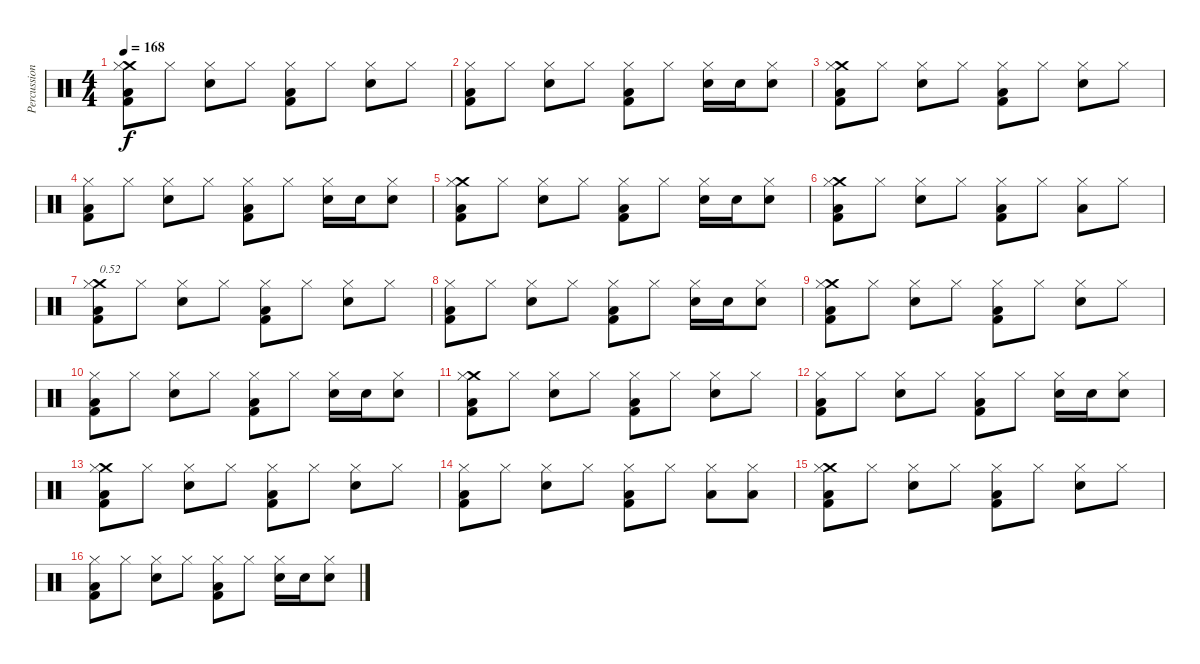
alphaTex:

\track ("Percussions" "Percussion") {instrument percussion}
\staff {score}
\articulation defaults
\ts (4 4)
\tempo 168
\clef neutral
\ks c
("Kick (hit) 2" "Low Floor Tom (hit)" "Crash medium (hit)" "Hi-Hat (closed)").8{dy f} "Hi-Hat (closed)".8 ("Snare (hit) 2" "Hi-Hat (closed)").8 "Hi-Hat (closed)".8 ("Kick (hit) 2" "Low Floor Tom (hit)" "Hi-Hat (closed)").8 "Hi-Hat (closed)".8 ("Snare (hit) 2" "Hi-Hat (closed)").8 "Hi-Hat (closed)".8 |
("Kick (hit) 2" "Low Floor Tom (hit)" "Hi-Hat (closed)").8 "Hi-Hat (closed)".8 ("Snare (hit) 2" "Hi-Hat (closed)").8 "Hi-Hat (closed)".8 ("Kick (hit) 2" "Low Floor Tom (hit)" "Hi-Hat (closed)").8 "Hi-Hat (closed)".8 ("Snare (hit) 2" "Hi-Hat (closed)").16 "Snare (hit) 2".16 ("Snare (hit) 2" "Hi-Hat (closed)").8 |
("Kick (hit) 2" "Low Floor Tom (hit)" "Crash medium (hit)" "Hi-Hat (closed)").8 "Hi-Hat (closed)".8 ("Snare (hit) 2" "Hi-Hat (closed)").8 "Hi-Hat (closed)".8 ("Kick (hit) 2" "Low Floor Tom (hit)" "Hi-Hat (closed)").8 "Hi-Hat (closed)".8 ("Snare (hit) 2" "Hi-Hat (closed)").8 "Hi-Hat (closed)".8 |
("Kick (hit) 2" "Low Floor Tom (hit)" "Hi-Hat (closed)").8 "Hi-Hat (closed)".8 ("Snare (hit) 2" "Hi-Hat (closed)").8 "Hi-Hat (closed)".8 ("Kick (hit) 2" "Low Floor Tom (hit)" "Hi-Hat (closed)").8 "Hi-Hat (closed)".8 ("Snare (hit) 2" "Hi-Hat (closed)").16 "Snare (hit) 2".16 ("Snare (hit) 2" "Hi-Hat (closed)").8 |
("Kick (hit) 2" "Low Floor Tom (hit)" "Crash medium (hit)" "Hi-Hat (closed)").8 "Hi-Hat (closed)".8 ("Snare (hit) 2" "Hi-Hat (closed)").8 "Hi-Hat (closed)".8 ("Kick (hit) 2" "Low Floor Tom (hit)" "Hi-Hat (closed)").8 "Hi-Hat (closed)".8 ("Snare (hit) 2" "Hi-Hat (closed)").16 "Snare (hit) 2".16 ("Snare (hit) 2" "Hi-Hat (closed)").8 |
("Kick (hit) 2" "Low Floor Tom (hit)" "Crash medium (hit)" "Hi-Hat (closed)").8 "Hi-Hat (closed)".8 ("Snare (hit) 2" "Hi-Hat (closed)").8 "Hi-Hat (closed)".8 ("Kick (hit) 2" "Low Floor Tom (hit)" "Hi-Hat (closed)").8 "Hi-Hat (closed)".8 ("Low Tom (hit)" "Hi-Hat (closed)").8 "Hi-Hat (closed)".8 |
("Kick (hit) 2" "Low Floor Tom (hit)" "Crash medium (hit)" "Hi-Hat (closed)").8{txt "0.52"} "Hi-Hat (closed)".8 ("Snare (hit) 2" "Hi-Hat (closed)").8 "Hi-Hat (closed)".8 ("Kick (hit) 2" "Low Floor Tom (hit)" "Hi-Hat (closed)").8 "Hi-Hat (closed)".8 ("Snare (hit) 2" "Hi-Hat (closed)").8 "Hi-Hat (closed)".8 |
("Kick (hit) 2" "Low Floor Tom (hit)" "Hi-Hat (closed)").8 "Hi-Hat (closed)".8 ("Snare (hit) 2" "Hi-Hat (closed)").8 "Hi-Hat (closed)".8 ("Kick (hit) 2" "Low Floor Tom (hit)" "Hi-Hat (closed)").8 "Hi-Hat (closed)".8 ("Snare (hit) 2" "Hi-Hat (closed)").16 "Snare (hit) 2".16 ("Snare (hit) 2" "Hi-Hat (closed)").8 |
("Kick (hit) 2" "Low Floor Tom (hit)" "Crash medium (hit)" "Hi-Hat (closed)").8 "Hi-Hat (closed)".8 ("Snare (hit) 2" "Hi-Hat (closed)").8 "Hi-Hat (closed)".8 ("Kick (hit) 2" "Low Floor Tom (hit)" "Hi-Hat (closed)").8 "Hi-Hat (closed)".8 ("Snare (hit) 2" "Hi-Hat (closed)").8 "Hi-Hat (closed)".8 |
("Kick (hit) 2" "Low Floor Tom (hit)" "Hi-Hat (closed)").8 "Hi-Hat (closed)".8 ("Snare (hit) 2" "Hi-Hat (closed)").8 "Hi-Hat (closed)".8 ("Kick (hit) 2" "Low Floor Tom (hit)" "Hi-Hat (closed)").8 "Hi-Hat (closed)".8 ("Snare (hit) 2" "Hi-Hat (closed)").16 "Snare (hit) 2".16 ("Snare (hit) 2" "Hi-Hat (closed)").8 |
("Kick (hit) 2" "Low Floor Tom (hit)" "Crash medium (hit)" "Hi-Hat (closed)").8 "Hi-Hat (closed)".8 ("Snare (hit) 2" "Hi-Hat (closed)").8 "Hi-Hat (closed)".8 ("Kick (hit) 2" "Low Floor Tom (hit)" "Hi-Hat (closed)").8 "Hi-Hat (closed)".8 ("Snare (hit) 2" "Hi-Hat (closed)").8 "Hi-Hat (closed)".8 |
("Kick (hit) 2" "Low Floor Tom (hit)" "Hi-Hat (closed)").8 "Hi-Hat (closed)".8 ("Snare (hit) 2" "Hi-Hat (closed)").8 "Hi-Hat (closed)".8 ("Kick (hit) 2" "Low Floor Tom (hit)" "Hi-Hat (closed)").8 "Hi-Hat (closed)".8 ("Snare (hit) 2" "Hi-Hat (closed)").16 "Snare (hit) 2".16 ("Snare (hit) 2" "Hi-Hat (closed)").8 |
("Kick (hit) 2" "Low Floor Tom (hit)" "Crash medium (hit)" "Hi-Hat (closed)").8 "Hi-Hat (closed)".8 ("Snare (hit) 2" "Hi-Hat (closed)").8 "Hi-Hat (closed)".8 ("Kick (hit) 2" "Low Floor Tom (hit)" "Hi-Hat (closed)").8 "Hi-Hat (closed)".8 ("Snare (hit) 2" "Hi-Hat (closed)").8 "Hi-Hat (closed)".8 |
("Kick (hit) 2" "Low Floor Tom (hit)" "Hi-Hat (closed)").8 "Hi-Hat (closed)".8 ("Snare (hit) 2" "Hi-Hat (closed)").8 "Hi-Hat (closed)".8 ("Kick (hit) 2" "Low Floor Tom (hit)" "Hi-Hat (closed)").8 "Hi-Hat (closed)".8 ("Low Tom (hit)" "Hi-Hat (closed)").8 ("Low Tom (hit)" "Hi-Hat (closed)").8 |
("Kick (hit) 2" "Low Floor Tom (hit)" "Crash medium (hit)" "Hi-Hat (closed)").8 "Hi-Hat (closed)".8 ("Snare (hit) 2" "Hi-Hat (closed)").8 "Hi-Hat (closed)".8 ("Kick (hit) 2" "Low Floor Tom (hit)" "Hi-Hat (closed)").8 "Hi-Hat (closed)".8 ("Snare (hit) 2" "Hi-Hat (closed)").8 "Hi-Hat (closed)".8 |
("Kick (hit) 2" "Low Floor Tom (hit)" "Hi-Hat (closed)").8 "Hi-Hat (closed)".8 ("Snare (hit) 2" "Hi-Hat (closed)").8 "Hi-Hat (closed)".8 ("Kick (hit) 2" "Low Floor Tom (hit)" "Hi-Hat (closed)").8 "Hi-Hat (closed)".8 ("Snare (hit) 2" "Hi-Hat (closed)").16 "Snare (hit) 2".16 ("Snare (hit) 2" "Hi-Hat (closed)").8
